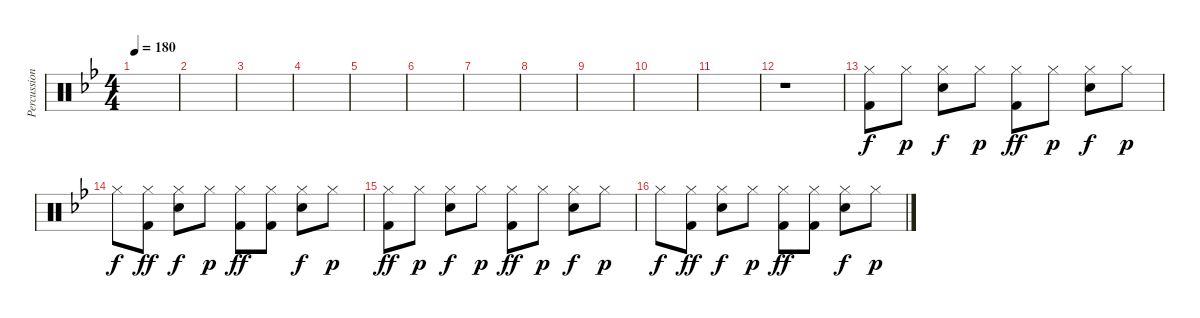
\track ("Percussion" "Percussion") {instrument percussion}
\staff {score}
\articulation defaults
\ts (4 4)
\tempo 180
\clef neutral
\ks bb
|
|
|
|
|
|
|
|
|
|
|
r.1 |
("Hi-Hat (closed)" "Kick (hit) 2").8 "Hi-Hat (closed)".8{dy p} ("Hi-Hat (closed)" "Snare (hit) 2").8{dy f} "Hi-Hat (closed)".8{dy p} ("Hi-Hat (closed)" "Kick (hit) 2").8{dy ff} "Hi-Hat (closed)".8{dy p} ("Hi-Hat (closed)" "Snare (hit) 2").8{dy f} "Hi-Hat (closed)".8{dy p} |
"Hi-Hat (closed)".8{dy f} ("Hi-Hat (closed)" "Kick (hit) 2").8{dy ff} ("Hi-Hat (closed)" "Snare (hit) 2").8{dy f} "Hi-Hat (closed)".8{dy p} ("Hi-Hat (closed)" "Kick (hit) 2").8{dy ff} ("Hi-Hat (closed)" "Kick (hit) 2").8 ("Hi-Hat (closed)" "Snare (hit) 2").8{dy f} "Hi-Hat (closed)".8{dy p} |
("Hi-Hat (closed)" "Kick (hit) 2").8{dy ff} "Hi-Hat (closed)".8{dy p} ("Hi-Hat (closed)" "Snare (hit) 2").8{dy f} "Hi-Hat (closed)".8{dy p} ("Hi-Hat (closed)" "Kick (hit) 2").8{dy ff} "Hi-Hat (closed)".8{dy p} ("Hi-Hat (closed)" "Snare (hit) 2").8{dy f} "Hi-Hat (closed)".8{dy p} |
"Hi-Hat (closed)".8{dy f} ("Hi-Hat (closed)" "Kick (hit) 2").8{dy ff} ("Hi-Hat (closed)" "Snare (hit) 2").8{dy f} "Hi-Hat (closed)".8{dy p} ("Hi-Hat (closed)" "Kick (hit) 2").8{dy ff} ("Hi-Hat (closed)" "Kick (hit) 2").8 ("Hi-Hat (closed)" "Snare (hit) 2").8{dy f} "Hi-Hat (closed)".8{dy p}
